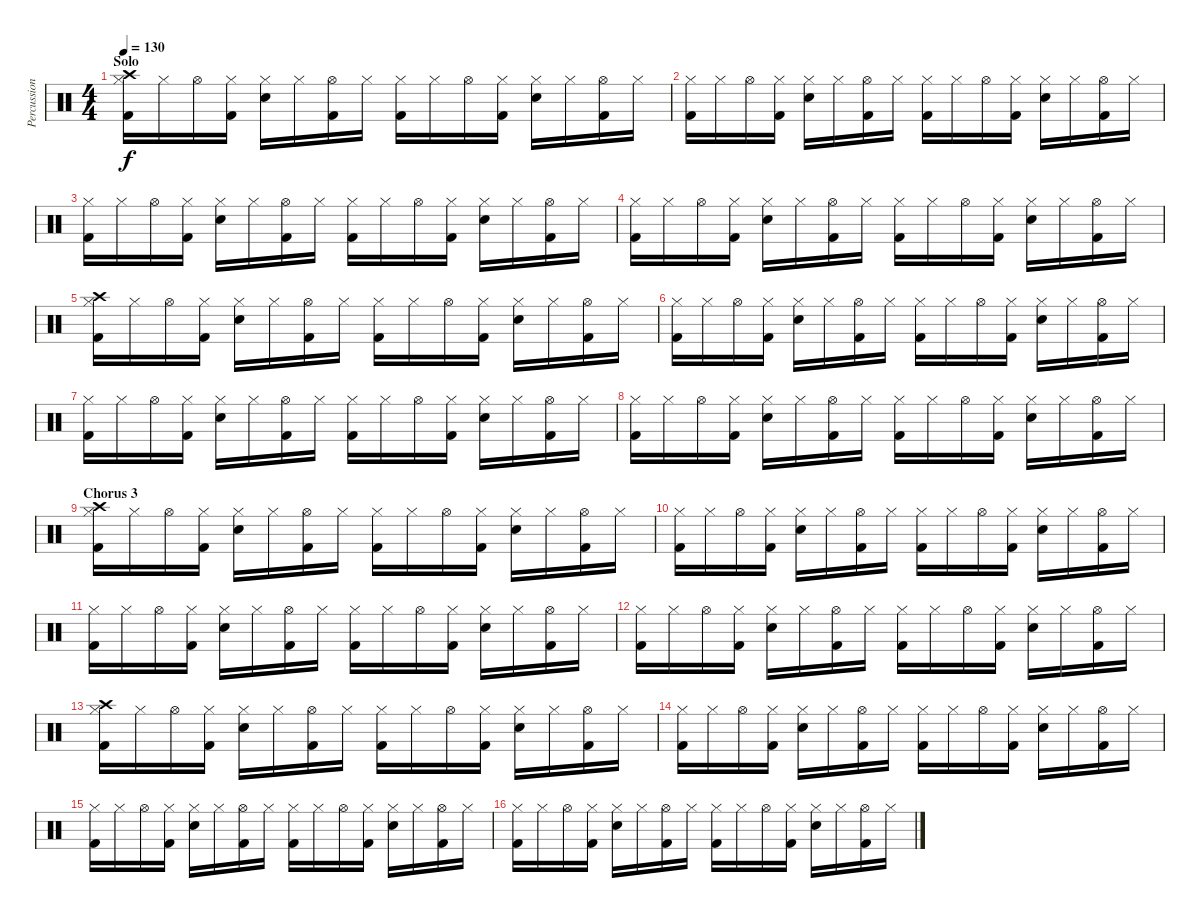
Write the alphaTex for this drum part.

\track ("Percussion" "Percussion") {instrument percussion}
\staff {score}
\articulation defaults
\ts (4 4)
\section ("" "Solo")
\tempo 130
\clef neutral
\ks c
("Hi-Hat (closed)" "Crash high (hit)" "Kick (hit) 2").16{dy f} "Hi-Hat (closed)".16 "Hi-Hat (open)".16 ("Hi-Hat (closed)" "Kick (hit) 2").16 ("Hi-Hat (closed)" "Snare (hit) 2").16 "Hi-Hat (closed)".16 ("Hi-Hat (open)" "Kick (hit) 2").16 "Hi-Hat (closed)".16 ("Hi-Hat (closed)" "Kick (hit) 2").16 "Hi-Hat (closed)".16 "Hi-Hat (open)".16 ("Hi-Hat (closed)" "Kick (hit) 2").16 ("Hi-Hat (closed)" "Snare (hit) 2").16 "Hi-Hat (closed)".16 ("Hi-Hat (open)" "Kick (hit) 2").16 "Hi-Hat (closed)".16 |
("Hi-Hat (closed)" "Kick (hit) 2").16 "Hi-Hat (closed)".16 "Hi-Hat (open)".16 ("Hi-Hat (closed)" "Kick (hit) 2").16 ("Hi-Hat (closed)" "Snare (hit) 2").16 "Hi-Hat (closed)".16 ("Hi-Hat (open)" "Kick (hit) 2").16 "Hi-Hat (closed)".16 ("Hi-Hat (closed)" "Kick (hit) 2").16 "Hi-Hat (closed)".16 "Hi-Hat (open)".16 ("Hi-Hat (closed)" "Kick (hit) 2").16 ("Hi-Hat (closed)" "Snare (hit) 2").16 "Hi-Hat (closed)".16 ("Hi-Hat (open)" "Kick (hit) 2").16 "Hi-Hat (closed)".16 |
("Hi-Hat (closed)" "Kick (hit) 2").16 "Hi-Hat (closed)".16 "Hi-Hat (open)".16 ("Hi-Hat (closed)" "Kick (hit) 2").16 ("Hi-Hat (closed)" "Snare (hit) 2").16 "Hi-Hat (closed)".16 ("Hi-Hat (open)" "Kick (hit) 2").16 "Hi-Hat (closed)".16 ("Hi-Hat (closed)" "Kick (hit) 2").16 "Hi-Hat (closed)".16 "Hi-Hat (open)".16 ("Hi-Hat (closed)" "Kick (hit) 2").16 ("Hi-Hat (closed)" "Snare (hit) 2").16 "Hi-Hat (closed)".16 ("Hi-Hat (open)" "Kick (hit) 2").16 "Hi-Hat (closed)".16 |
("Hi-Hat (closed)" "Kick (hit) 2").16 "Hi-Hat (closed)".16 "Hi-Hat (open)".16 ("Hi-Hat (closed)" "Kick (hit) 2").16 ("Hi-Hat (closed)" "Snare (hit) 2").16 "Hi-Hat (closed)".16 ("Hi-Hat (open)" "Kick (hit) 2").16 "Hi-Hat (closed)".16 ("Hi-Hat (closed)" "Kick (hit) 2").16 "Hi-Hat (closed)".16 "Hi-Hat (open)".16 ("Hi-Hat (closed)" "Kick (hit) 2").16 ("Hi-Hat (closed)" "Snare (hit) 2").16 "Hi-Hat (closed)".16 ("Hi-Hat (open)" "Kick (hit) 2").16 "Hi-Hat (closed)".16 |
("Hi-Hat (closed)" "Crash high (hit)" "Kick (hit) 2").16 "Hi-Hat (closed)".16 "Hi-Hat (open)".16 ("Hi-Hat (closed)" "Kick (hit) 2").16 ("Hi-Hat (closed)" "Snare (hit) 2").16 "Hi-Hat (closed)".16 ("Hi-Hat (open)" "Kick (hit) 2").16 "Hi-Hat (closed)".16 ("Hi-Hat (closed)" "Kick (hit) 2").16 "Hi-Hat (closed)".16 "Hi-Hat (open)".16 ("Hi-Hat (closed)" "Kick (hit) 2").16 ("Hi-Hat (closed)" "Snare (hit) 2").16 "Hi-Hat (closed)".16 ("Hi-Hat (open)" "Kick (hit) 2").16 "Hi-Hat (closed)".16 |
("Hi-Hat (closed)" "Kick (hit) 2").16 "Hi-Hat (closed)".16 "Hi-Hat (open)".16 ("Hi-Hat (closed)" "Kick (hit) 2").16 ("Hi-Hat (closed)" "Snare (hit) 2").16 "Hi-Hat (closed)".16 ("Hi-Hat (open)" "Kick (hit) 2").16 "Hi-Hat (closed)".16 ("Hi-Hat (closed)" "Kick (hit) 2").16 "Hi-Hat (closed)".16 "Hi-Hat (open)".16 ("Hi-Hat (closed)" "Kick (hit) 2").16 ("Hi-Hat (closed)" "Snare (hit) 2").16 "Hi-Hat (closed)".16 ("Hi-Hat (open)" "Kick (hit) 2").16 "Hi-Hat (closed)".16 |
("Hi-Hat (closed)" "Kick (hit) 2").16 "Hi-Hat (closed)".16 "Hi-Hat (open)".16 ("Hi-Hat (closed)" "Kick (hit) 2").16 ("Hi-Hat (closed)" "Snare (hit) 2").16 "Hi-Hat (closed)".16 ("Hi-Hat (open)" "Kick (hit) 2").16 "Hi-Hat (closed)".16 ("Hi-Hat (closed)" "Kick (hit) 2").16 "Hi-Hat (closed)".16 "Hi-Hat (open)".16 ("Hi-Hat (closed)" "Kick (hit) 2").16 ("Hi-Hat (closed)" "Snare (hit) 2").16 "Hi-Hat (closed)".16 ("Hi-Hat (open)" "Kick (hit) 2").16 "Hi-Hat (closed)".16 |
("Hi-Hat (closed)" "Kick (hit) 2").16 "Hi-Hat (closed)".16 "Hi-Hat (open)".16 ("Hi-Hat (closed)" "Kick (hit) 2").16 ("Hi-Hat (closed)" "Snare (hit) 2").16 "Hi-Hat (closed)".16 ("Hi-Hat (open)" "Kick (hit) 2").16 "Hi-Hat (closed)".16 ("Hi-Hat (closed)" "Kick (hit) 2").16 "Hi-Hat (closed)".16 "Hi-Hat (open)".16 ("Hi-Hat (closed)" "Kick (hit) 2").16 ("Hi-Hat (closed)" "Snare (hit) 2").16 "Hi-Hat (closed)".16 ("Hi-Hat (open)" "Kick (hit) 2").16 "Hi-Hat (closed)".16 |
\section ("" "Chorus 3")
("Hi-Hat (closed)" "Crash high (hit)" "Kick (hit) 2").16 "Hi-Hat (closed)".16 "Hi-Hat (open)".16 ("Hi-Hat (closed)" "Kick (hit) 2").16 ("Hi-Hat (closed)" "Snare (hit) 2").16 "Hi-Hat (closed)".16 ("Hi-Hat (open)" "Kick (hit) 2").16 "Hi-Hat (closed)".16 ("Hi-Hat (closed)" "Kick (hit) 2").16 "Hi-Hat (closed)".16 "Hi-Hat (open)".16 ("Hi-Hat (closed)" "Kick (hit) 2").16 ("Hi-Hat (closed)" "Snare (hit) 2").16 "Hi-Hat (closed)".16 ("Hi-Hat (open)" "Kick (hit) 2").16 "Hi-Hat (closed)".16 |
("Hi-Hat (closed)" "Kick (hit) 2").16 "Hi-Hat (closed)".16 "Hi-Hat (open)".16 ("Hi-Hat (closed)" "Kick (hit) 2").16 ("Hi-Hat (closed)" "Snare (hit) 2").16 "Hi-Hat (closed)".16 ("Hi-Hat (open)" "Kick (hit) 2").16 "Hi-Hat (closed)".16 ("Hi-Hat (closed)" "Kick (hit) 2").16 "Hi-Hat (closed)".16 "Hi-Hat (open)".16 ("Hi-Hat (closed)" "Kick (hit) 2").16 ("Hi-Hat (closed)" "Snare (hit) 2").16 "Hi-Hat (closed)".16 ("Hi-Hat (open)" "Kick (hit) 2").16 "Hi-Hat (closed)".16 |
("Hi-Hat (closed)" "Kick (hit) 2").16 "Hi-Hat (closed)".16 "Hi-Hat (open)".16 ("Hi-Hat (closed)" "Kick (hit) 2").16 ("Hi-Hat (closed)" "Snare (hit) 2").16 "Hi-Hat (closed)".16 ("Hi-Hat (open)" "Kick (hit) 2").16 "Hi-Hat (closed)".16 ("Hi-Hat (closed)" "Kick (hit) 2").16 "Hi-Hat (closed)".16 "Hi-Hat (open)".16 ("Hi-Hat (closed)" "Kick (hit) 2").16 ("Hi-Hat (closed)" "Snare (hit) 2").16 "Hi-Hat (closed)".16 ("Hi-Hat (open)" "Kick (hit) 2").16 "Hi-Hat (closed)".16 |
("Hi-Hat (closed)" "Kick (hit) 2").16 "Hi-Hat (closed)".16 "Hi-Hat (open)".16 ("Hi-Hat (closed)" "Kick (hit) 2").16 ("Hi-Hat (closed)" "Snare (hit) 2").16 "Hi-Hat (closed)".16 ("Hi-Hat (open)" "Kick (hit) 2").16 "Hi-Hat (closed)".16 ("Hi-Hat (closed)" "Kick (hit) 2").16 "Hi-Hat (closed)".16 "Hi-Hat (open)".16 ("Hi-Hat (closed)" "Kick (hit) 2").16 ("Hi-Hat (closed)" "Snare (hit) 2").16 "Hi-Hat (closed)".16 ("Hi-Hat (open)" "Kick (hit) 2").16 "Hi-Hat (closed)".16 |
("Hi-Hat (closed)" "Crash high (hit)" "Kick (hit) 2").16 "Hi-Hat (closed)".16 "Hi-Hat (open)".16 ("Hi-Hat (closed)" "Kick (hit) 2").16 ("Hi-Hat (closed)" "Snare (hit) 2").16 "Hi-Hat (closed)".16 ("Hi-Hat (open)" "Kick (hit) 2").16 "Hi-Hat (closed)".16 ("Hi-Hat (closed)" "Kick (hit) 2").16 "Hi-Hat (closed)".16 "Hi-Hat (open)".16 ("Hi-Hat (closed)" "Kick (hit) 2").16 ("Hi-Hat (closed)" "Snare (hit) 2").16 "Hi-Hat (closed)".16 ("Hi-Hat (open)" "Kick (hit) 2").16 "Hi-Hat (closed)".16 |
("Hi-Hat (closed)" "Kick (hit) 2").16 "Hi-Hat (closed)".16 "Hi-Hat (open)".16 ("Hi-Hat (closed)" "Kick (hit) 2").16 ("Hi-Hat (closed)" "Snare (hit) 2").16 "Hi-Hat (closed)".16 ("Hi-Hat (open)" "Kick (hit) 2").16 "Hi-Hat (closed)".16 ("Hi-Hat (closed)" "Kick (hit) 2").16 "Hi-Hat (closed)".16 "Hi-Hat (open)".16 ("Hi-Hat (closed)" "Kick (hit) 2").16 ("Hi-Hat (closed)" "Snare (hit) 2").16 "Hi-Hat (closed)".16 ("Hi-Hat (open)" "Kick (hit) 2").16 "Hi-Hat (closed)".16 |
("Hi-Hat (closed)" "Kick (hit) 2").16 "Hi-Hat (closed)".16 "Hi-Hat (open)".16 ("Hi-Hat (closed)" "Kick (hit) 2").16 ("Hi-Hat (closed)" "Snare (hit) 2").16 "Hi-Hat (closed)".16 ("Hi-Hat (open)" "Kick (hit) 2").16 "Hi-Hat (closed)".16 ("Hi-Hat (closed)" "Kick (hit) 2").16 "Hi-Hat (closed)".16 "Hi-Hat (open)".16 ("Hi-Hat (closed)" "Kick (hit) 2").16 ("Hi-Hat (closed)" "Snare (hit) 2").16 "Hi-Hat (closed)".16 ("Hi-Hat (open)" "Kick (hit) 2").16 "Hi-Hat (closed)".16 |
("Hi-Hat (closed)" "Kick (hit) 2").16 "Hi-Hat (closed)".16 "Hi-Hat (open)".16 ("Hi-Hat (closed)" "Kick (hit) 2").16 ("Hi-Hat (closed)" "Snare (hit) 2").16 "Hi-Hat (closed)".16 ("Hi-Hat (open)" "Kick (hit) 2").16 "Hi-Hat (closed)".16 ("Hi-Hat (closed)" "Kick (hit) 2").16 "Hi-Hat (closed)".16 "Hi-Hat (open)".16 ("Hi-Hat (closed)" "Kick (hit) 2").16 ("Hi-Hat (closed)" "Snare (hit) 2").16 "Hi-Hat (closed)".16 ("Hi-Hat (open)" "Kick (hit) 2").16 "Hi-Hat (closed)".16
